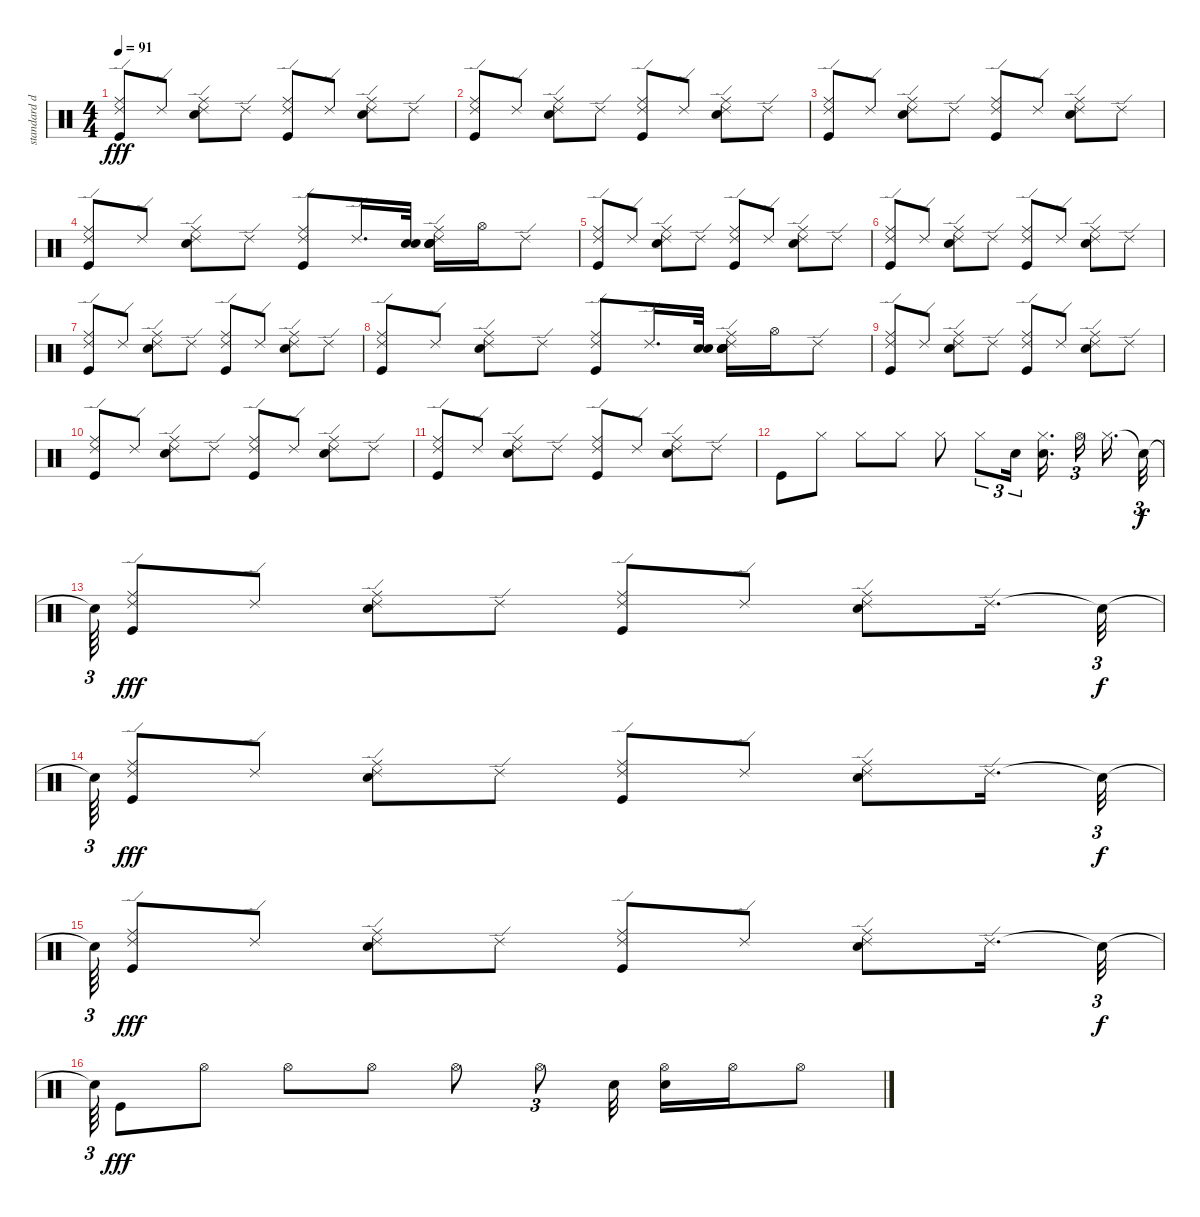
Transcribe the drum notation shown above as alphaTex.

\track ("standard drums" "standard d") {instrument percussion}
\staff {score}
\articulation defaults
\ts (4 4)
\tempo 91
\clef neutral
\ks c
("Ride (edge) 2" "Ride (middle)" "Kick (hit)").8{dy fff} "Ride (edge) 2".8 ("Ride (edge) 2" "Ride (middle)" "Snare (hit) 2").8 "Ride (edge) 2".8 ("Ride (edge) 2" "Ride (middle)" "Kick (hit)").8 "Ride (edge) 2".8 ("Ride (edge) 2" "Ride (middle)" "Snare (hit) 2").8 "Ride (edge) 2".8 |
("Ride (middle)" "Ride (edge) 2" "Kick (hit)").8 "Ride (edge) 2".8 ("Ride (edge) 2" "Ride (middle)" "Snare (hit) 2").8 "Ride (edge) 2".8 ("Ride (edge) 2" "Ride (middle)" "Kick (hit)").8 "Ride (edge) 2".8 ("Ride (middle)" "Ride (edge) 2" "Snare (hit) 2").8 "Ride (edge) 2".8 |
("Ride (edge) 2" "Ride (middle)" "Kick (hit)").8 "Ride (edge) 2".8 ("Ride (edge) 2" "Ride (middle)" "Snare (hit) 2").8 "Ride (edge) 2".8 ("Ride (edge) 2" "Ride (middle)" "Kick (hit)").8 "Ride (edge) 2".8 ("Ride (edge) 2" "Ride (middle)" "Snare (hit) 2").8 "Ride (edge) 2".8 |
("Ride (middle)" "Ride (edge) 2" "Kick (hit)").8 "Ride (edge) 2".8 ("Ride (edge) 2" "Ride (middle)" "Snare (hit) 2").8 "Ride (edge) 2".8 ("Ride (edge) 2" "Ride (middle)" "Kick (hit)").8 "Ride (edge) 2".16{d} ("Electric Snare (hit)" "Snare (hit) 2").32 ("Ride (middle)" "Ride (edge) 2" "Snare (hit) 2" "Snare (hit) 2" "Electric Snare (hit)").16 "Hi-Hat (open)".16 "Ride (edge) 2".8 |
("Ride (edge) 2" "Ride (middle)" "Kick (hit)").8 "Ride (edge) 2".8 ("Ride (edge) 2" "Ride (middle)" "Snare (hit) 2").8 "Ride (edge) 2".8 ("Ride (edge) 2" "Ride (middle)" "Kick (hit)").8 "Ride (edge) 2".8 ("Ride (edge) 2" "Ride (middle)" "Snare (hit) 2").8 "Ride (edge) 2".8 |
("Ride (middle)" "Ride (edge) 2" "Kick (hit)").8 "Ride (edge) 2".8 ("Ride (edge) 2" "Ride (middle)" "Snare (hit) 2").8 "Ride (edge) 2".8 ("Ride (edge) 2" "Ride (middle)" "Kick (hit)").8 "Ride (edge) 2".8 ("Ride (middle)" "Ride (edge) 2" "Snare (hit) 2").8 "Ride (edge) 2".8 |
("Ride (edge) 2" "Ride (middle)" "Kick (hit)").8 "Ride (edge) 2".8 ("Ride (edge) 2" "Ride (middle)" "Snare (hit) 2").8 "Ride (edge) 2".8 ("Ride (edge) 2" "Ride (middle)" "Kick (hit)").8 "Ride (edge) 2".8 ("Ride (edge) 2" "Ride (middle)" "Snare (hit) 2").8 "Ride (edge) 2".8 |
("Ride (middle)" "Ride (edge) 2" "Kick (hit)").8 "Ride (edge) 2".8 ("Ride (edge) 2" "Ride (middle)" "Snare (hit) 2").8 "Ride (edge) 2".8 ("Ride (edge) 2" "Ride (middle)" "Kick (hit)").8 "Ride (edge) 2".16{d} ("Electric Snare (hit)" "Snare (hit) 2").32 ("Ride (middle)" "Ride (edge) 2" "Snare (hit) 2" "Snare (hit) 2" "Electric Snare (hit)").16 "Hi-Hat (open)".16 "Ride (edge) 2".8 |
("Ride (edge) 2" "Ride (middle)" "Kick (hit)").8 "Ride (edge) 2".8 ("Ride (edge) 2" "Ride (middle)" "Snare (hit) 2").8 "Ride (edge) 2".8 ("Ride (edge) 2" "Ride (middle)" "Kick (hit)").8 "Ride (edge) 2".8 ("Ride (edge) 2" "Ride (middle)" "Snare (hit) 2").8 "Ride (edge) 2".8 |
("Ride (middle)" "Ride (edge) 2" "Kick (hit)").8 "Ride (edge) 2".8 ("Ride (edge) 2" "Ride (middle)" "Snare (hit) 2").8 "Ride (edge) 2".8 ("Ride (edge) 2" "Ride (middle)" "Kick (hit)").8 "Ride (edge) 2".8 ("Ride (middle)" "Ride (edge) 2" "Snare (hit) 2").8 "Ride (edge) 2".8 |
("Ride (edge) 2" "Ride (middle)" "Kick (hit)").8 "Ride (edge) 2".8 ("Ride (edge) 2" "Ride (middle)" "Snare (hit) 2").8 "Ride (edge) 2".8 ("Ride (edge) 2" "Ride (middle)" "Kick (hit)").8 "Ride (edge) 2".8 ("Ride (edge) 2" "Ride (middle)" "Snare (hit) 2").8 "Ride (edge) 2".8 |
"Kick (hit)".8 "Hi-Hat (closed)".8 "Hi-Hat (closed)".8 "Hi-Hat (closed)".8 "Hi-Hat (closed)".8 "Hi-Hat (closed)".8{tu (3 2)} "Electric Snare (hit)".16{tu (3 2)} ("Hi-Hat (closed)" "Electric Snare (hit)").16{d beam splitsecondary} "Hi-Hat (open)".16{tu (3 2) beam splitsecondary} "Hi-Hat (closed)".16{d} "Snare (hit)"{t}.32{tu (3 2) dy f} |
"Snare (hit)"{t}.64{tu (3 2)} ("Ride (edge) 2" "Ride (middle)" "Kick (hit)").8{dy fff} "Ride (edge) 2".8 ("Ride (edge) 2" "Ride (middle)" "Snare (hit) 2").8 "Ride (edge) 2".8 ("Ride (edge) 2" "Ride (middle)" "Kick (hit)").8 "Ride (edge) 2".8 ("Ride (edge) 2" "Ride (middle)" "Snare (hit) 2").8 "Ride (edge) 2".16{d} "Snare (hit)"{t}.32{tu (3 2) dy f} |
"Snare (hit)"{t}.64{tu (3 2)} ("Ride (middle)" "Ride (edge) 2" "Kick (hit)").8{dy fff} "Ride (edge) 2".8 ("Ride (edge) 2" "Ride (middle)" "Snare (hit) 2").8 "Ride (edge) 2".8 ("Ride (edge) 2" "Ride (middle)" "Kick (hit)").8 "Ride (edge) 2".8 ("Ride (middle)" "Ride (edge) 2" "Snare (hit) 2").8 "Ride (edge) 2".16{d} "Snare (hit)"{t}.32{tu (3 2) dy f} |
"Snare (hit)"{t}.64{tu (3 2)} ("Ride (edge) 2" "Ride (middle)" "Kick (hit)").8{dy fff} "Ride (edge) 2".8 ("Ride (edge) 2" "Ride (middle)" "Snare (hit) 2").8 "Ride (edge) 2".8 ("Ride (edge) 2" "Ride (middle)" "Kick (hit)").8 "Ride (edge) 2".8 ("Ride (edge) 2" "Ride (middle)" "Snare (hit) 2").8 "Ride (edge) 2".16{d} "Snare (hit)"{t}.32{tu (3 2) dy f} |
"Snare (hit)"{t}.64{tu (3 2)} "Kick (hit)".8{dy fff} "Hi-Hat (open)".8 "Hi-Hat (open)".8 "Hi-Hat (open)".8 "Hi-Hat (open)".8 "Hi-Hat (open)".8{tu (3 2)} "Electric Snare (hit)".32 ("Electric Snare (hit)" "Hi-Hat (open)").16 "Hi-Hat (open)".16 "Hi-Hat (open)".8
